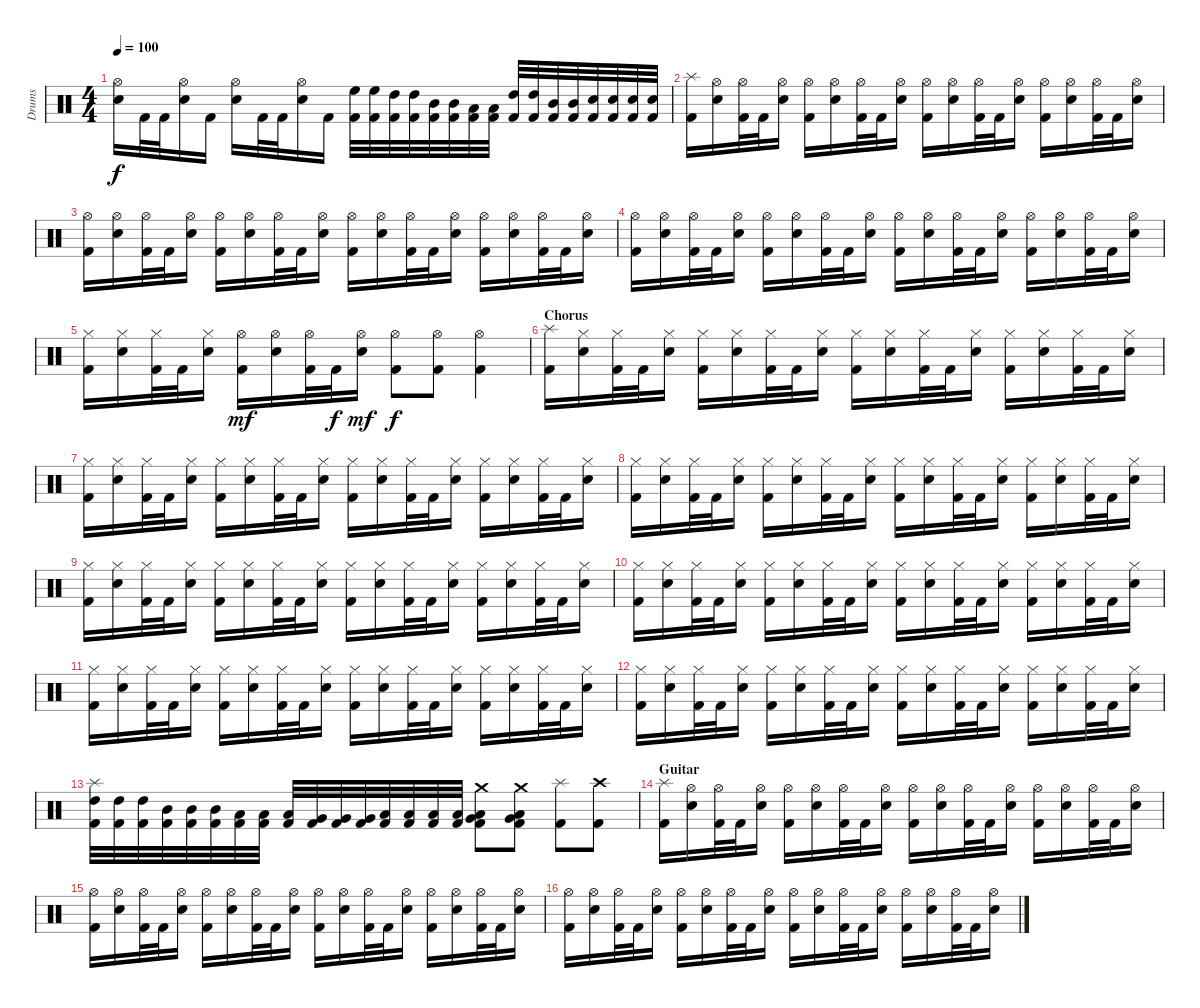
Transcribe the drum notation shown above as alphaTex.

\track ("Drums" "Drums") {instrument percussion}
\staff {score}
\articulation defaults
\ts (4 4)
\tempo 100
\clef neutral
\ks c
("Electric Snare (hit)" "Hi-Hat (open)").16{dy f} "Kick (hit) 2".32 "Kick (hit) 2".32 ("Electric Snare (hit)" "Hi-Hat (open)").16 "Kick (hit) 2".16 ("Electric Snare (hit)" "Hi-Hat (open)").16 "Kick (hit) 2".32 "Kick (hit) 2".32 ("Electric Snare (hit)" "Hi-Hat (open)").16 "Kick (hit) 2".16 ("Kick (hit) 2" "High Floor Tom (hit)").32 ("Kick (hit) 2" "High Floor Tom (hit)").32 ("Kick (hit) 2" "High Tom (hit)").32 ("Kick (hit) 2" "High Tom (hit)").32 ("Kick (hit) 2" "Mid Tom (hit)").32 ("Kick (hit) 2" "Mid Tom (hit)").32 ("Kick (hit) 2" "Low Tom (hit)").32 ("Kick (hit) 2" "Low Tom (hit)").32 ("Kick (hit) 2" "High Tom (hit)").32 ("Kick (hit) 2" "High Tom (hit)").32 ("Kick (hit) 2" "Mid Tom (hit)").32 ("Kick (hit) 2" "Mid Tom (hit)").32 ("Kick (hit) 2" "Electric Snare (hit)").32 ("Kick (hit) 2" "Electric Snare (hit)").32 ("Kick (hit) 2" "Electric Snare (hit)").32 ("Kick (hit) 2" "Electric Snare (hit)").32 |
\section ("" "")
("Kick (hit) 2" "Splash (hit)").16 ("Electric Snare (hit)" "Hi-Hat (open)").16 ("Kick (hit) 2" "Hi-Hat (open)").32 "Kick (hit) 2".32 ("Electric Snare (hit)" "Hi-Hat (open)").16 ("Kick (hit) 2" "Hi-Hat (open)").16 ("Electric Snare (hit)" "Hi-Hat (open)").16 ("Kick (hit) 2" "Hi-Hat (open)").32 "Kick (hit) 2".32 ("Electric Snare (hit)" "Hi-Hat (open)").16 ("Kick (hit) 2" "Hi-Hat (open)").16 ("Electric Snare (hit)" "Hi-Hat (open)").16 ("Kick (hit) 2" "Hi-Hat (open)").32 "Kick (hit) 2".32 ("Electric Snare (hit)" "Hi-Hat (open)").16 ("Kick (hit) 2" "Hi-Hat (open)").16 ("Electric Snare (hit)" "Hi-Hat (open)").16 ("Kick (hit) 2" "Hi-Hat (open)").32 "Kick (hit) 2".32 ("Electric Snare (hit)" "Hi-Hat (open)").16 |
("Kick (hit) 2" "Hi-Hat (open)").16 ("Electric Snare (hit)" "Hi-Hat (open)").16 ("Kick (hit) 2" "Hi-Hat (open)").32 "Kick (hit) 2".32 ("Electric Snare (hit)" "Hi-Hat (open)").16 ("Kick (hit) 2" "Hi-Hat (open)").16 ("Electric Snare (hit)" "Hi-Hat (open)").16 ("Kick (hit) 2" "Hi-Hat (open)").32 "Kick (hit) 2".32 ("Electric Snare (hit)" "Hi-Hat (open)").16 ("Kick (hit) 2" "Hi-Hat (open)").16 ("Electric Snare (hit)" "Hi-Hat (open)").16 ("Kick (hit) 2" "Hi-Hat (open)").32 "Kick (hit) 2".32 ("Electric Snare (hit)" "Hi-Hat (open)").16 ("Kick (hit) 2" "Hi-Hat (open)").16 ("Electric Snare (hit)" "Hi-Hat (open)").16 ("Kick (hit) 2" "Hi-Hat (open)").32 "Kick (hit) 2".32 ("Electric Snare (hit)" "Hi-Hat (open)").16 |
("Kick (hit) 2" "Hi-Hat (open)").16 ("Electric Snare (hit)" "Hi-Hat (open)").16 ("Kick (hit) 2" "Hi-Hat (open)").32 "Kick (hit) 2".32 ("Electric Snare (hit)" "Hi-Hat (open)").16 ("Kick (hit) 2" "Hi-Hat (open)").16 ("Electric Snare (hit)" "Hi-Hat (open)").16 ("Kick (hit) 2" "Hi-Hat (open)").32 "Kick (hit) 2".32 ("Electric Snare (hit)" "Hi-Hat (open)").16 ("Kick (hit) 2" "Hi-Hat (open)").16 ("Electric Snare (hit)" "Hi-Hat (open)").16 ("Kick (hit) 2" "Hi-Hat (open)").32 "Kick (hit) 2".32 ("Electric Snare (hit)" "Hi-Hat (open)").16 ("Kick (hit) 2" "Hi-Hat (open)").16 ("Electric Snare (hit)" "Hi-Hat (open)").16 ("Kick (hit) 2" "Hi-Hat (open)").32 "Kick (hit) 2".32 ("Electric Snare (hit)" "Hi-Hat (open)").16 |
("Kick (hit) 2" "Hi-Hat (closed)").16 ("Electric Snare (hit)" "Hi-Hat (closed)").16 ("Kick (hit) 2" "Hi-Hat (closed)").32 "Kick (hit) 2".32 ("Electric Snare (hit)" "Hi-Hat (closed)").16 ("Kick (hit) 2" "Hi-Hat (open)").16{dy mf} ("Electric Snare (hit)" "Hi-Hat (open)").16 ("Kick (hit) 2" "Hi-Hat (open)").32 "Kick (hit) 2".32{dy f} ("Electric Snare (hit)" "Hi-Hat (open)").16{dy mf} ("Kick (hit) 2" "Hi-Hat (open)").8{dy f} ("Kick (hit) 2" "Hi-Hat (open)").8 ("Kick (hit) 2" "Hi-Hat (open)").4 |
\section ("" "Chorus")
("Kick (hit) 2" "Splash (hit)").16 ("Electric Snare (hit)" "Hi-Hat (closed)").16 ("Kick (hit) 2" "Hi-Hat (closed)").32 "Kick (hit) 2".32 ("Electric Snare (hit)" "Hi-Hat (closed)").16 ("Kick (hit) 2" "Hi-Hat (closed)").16 ("Electric Snare (hit)" "Hi-Hat (closed)").16 ("Kick (hit) 2" "Hi-Hat (closed)").32 "Kick (hit) 2".32 ("Electric Snare (hit)" "Hi-Hat (closed)").16 ("Kick (hit) 2" "Hi-Hat (closed)").16 ("Electric Snare (hit)" "Hi-Hat (closed)").16 ("Kick (hit) 2" "Hi-Hat (closed)").32 "Kick (hit) 2".32 ("Electric Snare (hit)" "Hi-Hat (closed)").16 ("Kick (hit) 2" "Hi-Hat (closed)").16 ("Electric Snare (hit)" "Hi-Hat (closed)").16 ("Kick (hit) 2" "Hi-Hat (closed)").32 "Kick (hit) 2".32 ("Electric Snare (hit)" "Hi-Hat (closed)").16 |
("Kick (hit) 2" "Hi-Hat (closed)").16 ("Electric Snare (hit)" "Hi-Hat (closed)").16 ("Kick (hit) 2" "Hi-Hat (closed)").32 "Kick (hit) 2".32 ("Electric Snare (hit)" "Hi-Hat (closed)").16 ("Kick (hit) 2" "Hi-Hat (closed)").16 ("Electric Snare (hit)" "Hi-Hat (closed)").16 ("Kick (hit) 2" "Hi-Hat (closed)").32 "Kick (hit) 2".32 ("Electric Snare (hit)" "Hi-Hat (closed)").16 ("Kick (hit) 2" "Hi-Hat (closed)").16 ("Electric Snare (hit)" "Hi-Hat (closed)").16 ("Kick (hit) 2" "Hi-Hat (closed)").32 "Kick (hit) 2".32 ("Electric Snare (hit)" "Hi-Hat (closed)").16 ("Kick (hit) 2" "Hi-Hat (closed)").16 ("Electric Snare (hit)" "Hi-Hat (closed)").16 ("Kick (hit) 2" "Hi-Hat (closed)").32 "Kick (hit) 2".32 ("Electric Snare (hit)" "Hi-Hat (closed)").16 |
("Kick (hit) 2" "Hi-Hat (closed)").16 ("Electric Snare (hit)" "Hi-Hat (closed)").16 ("Kick (hit) 2" "Hi-Hat (closed)").32 "Kick (hit) 2".32 ("Electric Snare (hit)" "Hi-Hat (closed)").16 ("Kick (hit) 2" "Hi-Hat (closed)").16 ("Electric Snare (hit)" "Hi-Hat (closed)").16 ("Kick (hit) 2" "Hi-Hat (closed)").32 "Kick (hit) 2".32 ("Electric Snare (hit)" "Hi-Hat (closed)").16 ("Kick (hit) 2" "Hi-Hat (closed)").16 ("Electric Snare (hit)" "Hi-Hat (closed)").16 ("Kick (hit) 2" "Hi-Hat (closed)").32 "Kick (hit) 2".32 ("Electric Snare (hit)" "Hi-Hat (closed)").16 ("Kick (hit) 2" "Hi-Hat (closed)").16 ("Electric Snare (hit)" "Hi-Hat (closed)").16 ("Kick (hit) 2" "Hi-Hat (closed)").32 "Kick (hit) 2".32 ("Electric Snare (hit)" "Hi-Hat (closed)").16 |
("Kick (hit) 2" "Hi-Hat (closed)").16 ("Electric Snare (hit)" "Hi-Hat (closed)").16 ("Kick (hit) 2" "Hi-Hat (closed)").32 "Kick (hit) 2".32 ("Electric Snare (hit)" "Hi-Hat (closed)").16 ("Kick (hit) 2" "Hi-Hat (closed)").16 ("Electric Snare (hit)" "Hi-Hat (closed)").16 ("Kick (hit) 2" "Hi-Hat (closed)").32 "Kick (hit) 2".32 ("Electric Snare (hit)" "Hi-Hat (closed)").16 ("Kick (hit) 2" "Hi-Hat (closed)").16 ("Electric Snare (hit)" "Hi-Hat (closed)").16 ("Kick (hit) 2" "Hi-Hat (closed)").32 "Kick (hit) 2".32 ("Electric Snare (hit)" "Hi-Hat (closed)").16 ("Kick (hit) 2" "Hi-Hat (closed)").16 ("Electric Snare (hit)" "Hi-Hat (closed)").16 ("Kick (hit) 2" "Hi-Hat (closed)").32 "Kick (hit) 2".32 ("Electric Snare (hit)" "Hi-Hat (closed)").16 |
("Kick (hit) 2" "Hi-Hat (closed)").16 ("Electric Snare (hit)" "Hi-Hat (closed)").16 ("Kick (hit) 2" "Hi-Hat (closed)").32 "Kick (hit) 2".32 ("Electric Snare (hit)" "Hi-Hat (closed)").16 ("Kick (hit) 2" "Hi-Hat (closed)").16 ("Electric Snare (hit)" "Hi-Hat (closed)").16 ("Kick (hit) 2" "Hi-Hat (closed)").32 "Kick (hit) 2".32 ("Electric Snare (hit)" "Hi-Hat (closed)").16 ("Kick (hit) 2" "Hi-Hat (closed)").16 ("Electric Snare (hit)" "Hi-Hat (closed)").16 ("Kick (hit) 2" "Hi-Hat (closed)").32 "Kick (hit) 2".32 ("Electric Snare (hit)" "Hi-Hat (closed)").16 ("Kick (hit) 2" "Hi-Hat (closed)").16 ("Electric Snare (hit)" "Hi-Hat (closed)").16 ("Kick (hit) 2" "Hi-Hat (closed)").32 "Kick (hit) 2".32 ("Electric Snare (hit)" "Hi-Hat (closed)").16 |
("Kick (hit) 2" "Hi-Hat (closed)").16 ("Electric Snare (hit)" "Hi-Hat (closed)").16 ("Kick (hit) 2" "Hi-Hat (closed)").32 "Kick (hit) 2".32 ("Electric Snare (hit)" "Hi-Hat (closed)").16 ("Kick (hit) 2" "Hi-Hat (closed)").16 ("Electric Snare (hit)" "Hi-Hat (closed)").16 ("Kick (hit) 2" "Hi-Hat (closed)").32 "Kick (hit) 2".32 ("Electric Snare (hit)" "Hi-Hat (closed)").16 ("Kick (hit) 2" "Hi-Hat (closed)").16 ("Electric Snare (hit)" "Hi-Hat (closed)").16 ("Kick (hit) 2" "Hi-Hat (closed)").32 "Kick (hit) 2".32 ("Electric Snare (hit)" "Hi-Hat (closed)").16 ("Kick (hit) 2" "Hi-Hat (closed)").16 ("Electric Snare (hit)" "Hi-Hat (closed)").16 ("Kick (hit) 2" "Hi-Hat (closed)").32 "Kick (hit) 2".32 ("Electric Snare (hit)" "Hi-Hat (closed)").16 |
("Kick (hit) 2" "Hi-Hat (closed)").16 ("Electric Snare (hit)" "Hi-Hat (closed)").16 ("Kick (hit) 2" "Hi-Hat (closed)").32 "Kick (hit) 2".32 ("Electric Snare (hit)" "Hi-Hat (closed)").16 ("Kick (hit) 2" "Hi-Hat (closed)").16 ("Electric Snare (hit)" "Hi-Hat (closed)").16 ("Kick (hit) 2" "Hi-Hat (closed)").32 "Kick (hit) 2".32 ("Electric Snare (hit)" "Hi-Hat (closed)").16 ("Kick (hit) 2" "Hi-Hat (closed)").16 ("Electric Snare (hit)" "Hi-Hat (closed)").16 ("Kick (hit) 2" "Hi-Hat (closed)").32 "Kick (hit) 2".32 ("Electric Snare (hit)" "Hi-Hat (closed)").16 ("Kick (hit) 2" "Hi-Hat (closed)").16 ("Electric Snare (hit)" "Hi-Hat (closed)").16 ("Kick (hit) 2" "Hi-Hat (closed)").32 "Kick (hit) 2".32 ("Electric Snare (hit)" "Hi-Hat (closed)").16 |
("Kick (hit) 2" "High Tom (hit)" "Splash (hit)").32 ("Kick (hit) 2" "High Tom (hit)").32 ("Kick (hit) 2" "High Tom (hit)").32 ("Kick (hit) 2" "Mid Tom (hit)").32 ("Kick (hit) 2" "Mid Tom (hit)").32 ("Kick (hit) 2" "Mid Tom (hit)").32 ("Kick (hit) 2" "Low Tom (hit)").32 ("Kick (hit) 2" "Low Tom (hit)").32 ("Kick (hit) 2" "Low Tom (hit)").32 ("Kick (hit) 2" "Very Low Tom (hit)").32 ("Kick (hit) 2" "Very Low Tom (hit)").32 ("Kick (hit) 2" "Very Low Tom (hit)").32 ("Kick (hit) 2" "Low Floor Tom (hit)").32 ("Kick (hit) 2" "Low Floor Tom (hit)").32 ("Kick (hit) 2" "Low Floor Tom (hit)").32 ("Kick (hit) 2" "Low Floor Tom (hit)").32 ("Kick (hit) 2" "Low Floor Tom (hit)" "Very Low Tom (hit)" "Crash medium (hit)").8 ("Kick (hit) 2" "Low Floor Tom (hit)" "Very Low Tom (hit)" "Crash medium (hit)").8 ("Kick (hit) 2" "Splash (hit)").8 ("Kick (hit) 2" "Crash high (hit)").8 |
\section ("" "Guitar")
("Kick (hit) 2" "Splash (hit)").16 ("Electric Snare (hit)" "Hi-Hat (open)").16 ("Kick (hit) 2" "Hi-Hat (open)").32 "Kick (hit) 2".32 ("Electric Snare (hit)" "Hi-Hat (open)").16 ("Kick (hit) 2" "Hi-Hat (open)").16 ("Electric Snare (hit)" "Hi-Hat (open)").16 ("Kick (hit) 2" "Hi-Hat (open)").32 "Kick (hit) 2".32 ("Electric Snare (hit)" "Hi-Hat (open)").16 ("Kick (hit) 2" "Hi-Hat (open)").16 ("Electric Snare (hit)" "Hi-Hat (open)").16 ("Kick (hit) 2" "Hi-Hat (open)").32 "Kick (hit) 2".32 ("Electric Snare (hit)" "Hi-Hat (open)").16 ("Kick (hit) 2" "Hi-Hat (open)").16 ("Electric Snare (hit)" "Hi-Hat (open)").16 ("Kick (hit) 2" "Hi-Hat (open)").32 "Kick (hit) 2".32 ("Electric Snare (hit)" "Hi-Hat (open)").16 |
("Kick (hit) 2" "Hi-Hat (open)").16 ("Electric Snare (hit)" "Hi-Hat (open)").16 ("Kick (hit) 2" "Hi-Hat (open)").32 "Kick (hit) 2".32 ("Electric Snare (hit)" "Hi-Hat (open)").16 ("Kick (hit) 2" "Hi-Hat (open)").16 ("Electric Snare (hit)" "Hi-Hat (open)").16 ("Kick (hit) 2" "Hi-Hat (open)").32 "Kick (hit) 2".32 ("Electric Snare (hit)" "Hi-Hat (open)").16 ("Kick (hit) 2" "Hi-Hat (open)").16 ("Electric Snare (hit)" "Hi-Hat (open)").16 ("Kick (hit) 2" "Hi-Hat (open)").32 "Kick (hit) 2".32 ("Electric Snare (hit)" "Hi-Hat (open)").16 ("Kick (hit) 2" "Hi-Hat (open)").16 ("Electric Snare (hit)" "Hi-Hat (open)").16 ("Kick (hit) 2" "Hi-Hat (open)").32 "Kick (hit) 2".32 ("Electric Snare (hit)" "Hi-Hat (open)").16 |
("Kick (hit) 2" "Hi-Hat (open)").16 ("Electric Snare (hit)" "Hi-Hat (open)").16 ("Kick (hit) 2" "Hi-Hat (open)").32 "Kick (hit) 2".32 ("Electric Snare (hit)" "Hi-Hat (open)").16 ("Kick (hit) 2" "Hi-Hat (open)").16 ("Electric Snare (hit)" "Hi-Hat (open)").16 ("Kick (hit) 2" "Hi-Hat (open)").32 "Kick (hit) 2".32 ("Electric Snare (hit)" "Hi-Hat (open)").16 ("Kick (hit) 2" "Hi-Hat (open)").16 ("Electric Snare (hit)" "Hi-Hat (open)").16 ("Kick (hit) 2" "Hi-Hat (open)").32 "Kick (hit) 2".32 ("Electric Snare (hit)" "Hi-Hat (open)").16 ("Kick (hit) 2" "Hi-Hat (open)").16 ("Electric Snare (hit)" "Hi-Hat (open)").16 ("Kick (hit) 2" "Hi-Hat (open)").32 "Kick (hit) 2".32 ("Electric Snare (hit)" "Hi-Hat (open)").16
